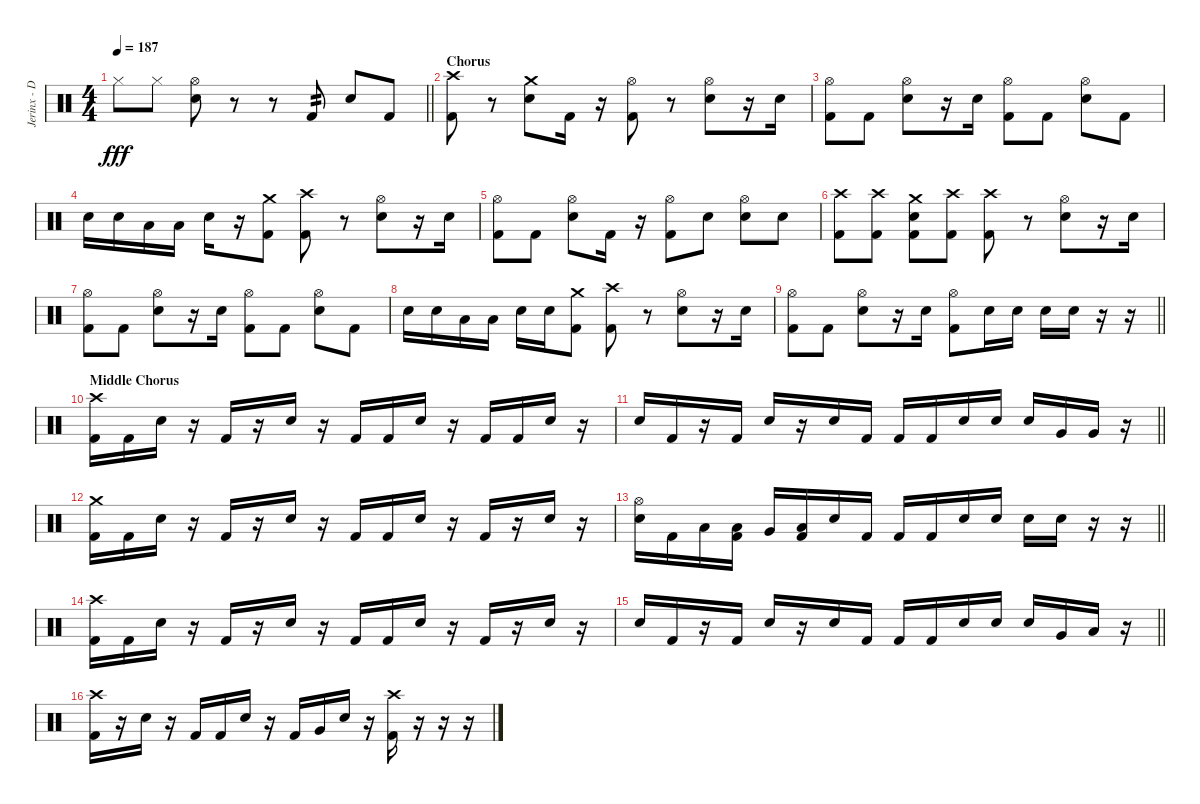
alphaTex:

\track ("Jerinx - Drum" "Jerinx - D") {instrument percussion}
\staff {score}
\articulation defaults
\ts (4 4)
\tempo 187
\clef neutral
\barLineRight lightlight
\ks c "Hi-Hat (closed)".8{dy fff} "Hi-Hat (closed)".8
("Hi-Hat (open)" "Snare (hit) 2").8 r.8 r.8 "Kick (hit) 2".8{tp 2} "Snare (hit) 2".8 "Kick (hit) 2".8 |
\section ("" "Chorus")
("Kick (hit) 2" "Crash high (hit)").8 r.8 ("Snare (hit) 2" "Crash medium (hit)").8 "Kick (hit) 2".16 r.16 ("Hi-Hat (open)" "Kick (hit) 2").8 r.8 ("Hi-Hat (open)" "Snare (hit) 2").8 r.16 "Snare (hit) 2".16 |
("Hi-Hat (open)" "Kick (hit) 2").8 "Kick (hit) 2".8 ("Hi-Hat (open)" "Snare (hit) 2").8 r.16 "Snare (hit) 2".16 ("Hi-Hat (open)" "Kick (hit) 2").8 "Kick (hit) 2".8 ("Hi-Hat (open)" "Snare (hit) 2").8 "Kick (hit) 2".8 |
"Snare (hit) 2".16 "Snare (hit) 2".16 "Low Tom (hit)".16 "Low Tom (hit)".16 "Snare (hit) 2".16 r.16 ("Kick (hit) 2" "Crash medium (hit)").8 ("Kick (hit) 2" "Crash high (hit)").8 r.8 ("Hi-Hat (open)" "Snare (hit) 2").8 r.16 "Snare (hit) 2".16 |
("Hi-Hat (open)" "Kick (hit) 2").8 "Kick (hit) 2".8 ("Hi-Hat (open)" "Snare (hit) 2").8 "Kick (hit) 2".16 r.16 ("Hi-Hat (open)" "Kick (hit) 2").8 "Snare (hit) 2".8 ("Hi-Hat (open)" "Snare (hit) 2").8 "Snare (hit) 2".8 |
("Kick (hit) 2" "Crash high (hit)").8 ("Kick (hit) 2" "Crash high (hit)").8 ("Snare (hit) 2" "Kick (hit) 2" "Crash medium (hit)").8 ("Kick (hit) 2" "Crash high (hit)").8 ("Kick (hit) 2" "Crash high (hit)").8 r.8 ("Hi-Hat (open)" "Snare (hit) 2").8 r.16 "Snare (hit) 2".16 |
("Hi-Hat (open)" "Kick (hit) 2").8 "Kick (hit) 2".8 ("Hi-Hat (open)" "Snare (hit) 2").8 r.16 "Snare (hit) 2".16 ("Hi-Hat (open)" "Kick (hit) 2").8 "Kick (hit) 2".8 ("Hi-Hat (open)" "Snare (hit) 2").8 "Kick (hit) 2".8 |
"Snare (hit) 2".16 "Snare (hit) 2".16 "Low Tom (hit)".16 "Low Tom (hit)".16 "Snare (hit) 2".16 "Snare (hit) 2".16 ("Kick (hit) 2" "Crash medium (hit)").8 ("Kick (hit) 2" "Crash high (hit)").8 r.8 ("Hi-Hat (open)" "Snare (hit) 2").8 r.16 "Snare (hit) 2".16 |
\barLineRight lightlight
("Hi-Hat (open)" "Kick (hit) 2").8 "Kick (hit) 2".8 ("Hi-Hat (open)" "Snare (hit) 2").8 r.16 "Snare (hit) 2".16 ("Hi-Hat (open)" "Kick (hit) 2").8 "Snare (hit) 2".16 "Snare (hit) 2".16 "Snare (hit) 2".16 "Snare (hit) 2".16 r.16 r.16 |
\section ("" "Middle Chorus")
("Kick (hit) 2" "Crash high (hit)").16 "Kick (hit) 2".16 "Snare (hit) 2".16 r.16 "Kick (hit) 2".16 r.16 "Snare (hit) 2".16 r.16 "Kick (hit) 2".16 "Kick (hit) 2".16 "Snare (hit) 2".16 r.16 "Kick (hit) 2".16 "Kick (hit) 2".16 "Snare (hit) 2".16 r.16 |
\barLineRight lightlight "Snare (hit) 2".16 "Kick (hit) 2".16
r.16 "Kick (hit) 2".16 "Snare (hit) 2".16 r.16 "Snare (hit) 2".16 "Kick (hit) 2".16 "Kick (hit) 2".16 "Kick (hit) 2".16 "Snare (hit) 2".16 "Snare (hit) 2".16 "Snare (hit) 2".16 "Very Low Tom (hit)".16 "Very Low Tom (hit)".16 r.16 |
("Kick (hit) 2" "Crash medium (hit)").16 "Kick (hit) 2".16 "Snare (hit) 2".16 r.16 "Kick (hit) 2".16 r.16 "Snare (hit) 2".16 r.16 "Kick (hit) 2".16 "Kick (hit) 2".16 "Snare (hit) 2".16 r.16 "Kick (hit) 2".16 r.16 "Snare (hit) 2".16 r.16 |
\barLineRight lightlight
("Hi-Hat (open)" "Snare (hit) 2").16 "Kick (hit) 2".16 "Low Tom (hit)".16 ("Kick (hit) 2" "Low Tom (hit)").16 "Very Low Tom (hit)".16 ("Kick (hit) 2" "Low Floor Tom (hit)").16 "Snare (hit) 2".16 "Kick (hit) 2".16 "Kick (hit) 2".16 "Kick (hit) 2".16 "Snare (hit) 2".16 "Snare (hit) 2".16 "Snare (hit) 2".16 "Snare (hit) 2".16 r.16 r.16 |
("Kick (hit) 2" "Crash high (hit)").16 "Kick (hit) 2".16 "Snare (hit) 2".16 r.16 "Kick (hit) 2".16 r.16 "Snare (hit) 2".16 r.16 "Kick (hit) 2".16 "Kick (hit) 2".16 "Snare (hit) 2".16 r.16 "Kick (hit) 2".16 r.16 "Snare (hit) 2".16 r.16 |
\barLineRight lightlight "Snare (hit) 2".16 "Kick (hit) 2".16
r.16 "Kick (hit) 2".16 "Snare (hit) 2".16 r.16 "Snare (hit) 2".16 "Kick (hit) 2".16 "Kick (hit) 2".16 "Kick (hit) 2".16 "Snare (hit) 2".16 "Snare (hit) 2".16 "Snare (hit) 2".16 "Very Low Tom (hit)".16 "Low Floor Tom (hit)".16 r.16 |
("Kick (hit) 2" "Crash high (hit)").16 r.16 "Snare (hit) 2".16 r.16 "Kick (hit) 2".16 "Kick (hit) 2".16 "Snare (hit) 2".16 r.16 "Kick (hit) 2".16 "Very Low Tom (hit)".16 "Snare (hit) 2".16 r.16 ("Kick (hit) 2" "Crash high (hit)").16 r.16 r.16 r.16
